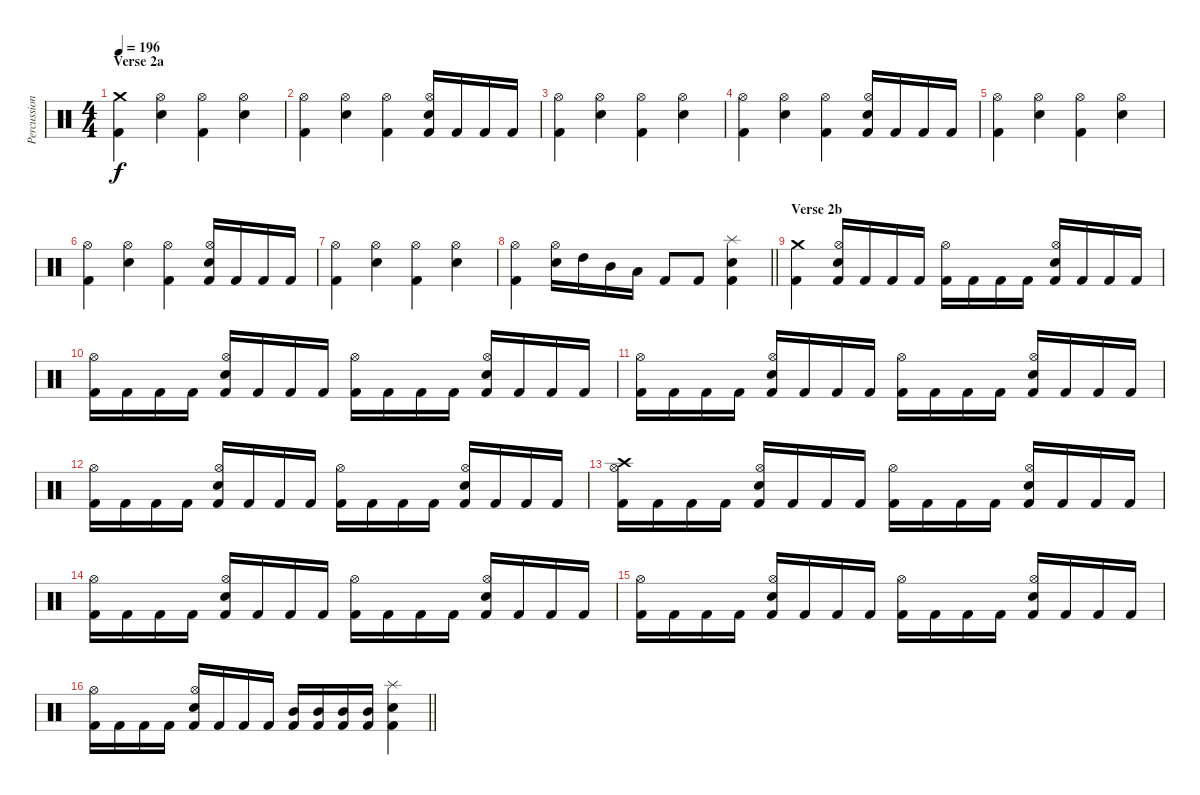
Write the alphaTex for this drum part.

\track ("Percussion" "Percussion") {instrument percussion}
\staff {score}
\articulation defaults
\ts (4 4)
\section ("" "Verse 2a")
\tempo 196
\clef neutral
\ks c
("Crash medium (hit)" "Kick (hit) 2").4{dy f} ("Hi-Hat (open)" "Electric Snare (hit)").4 ("Hi-Hat (open)" "Kick (hit) 2").4 ("Hi-Hat (open)" "Electric Snare (hit)").4 |
("Hi-Hat (open)" "Kick (hit) 2").4 ("Hi-Hat (open)" "Electric Snare (hit)").4 ("Hi-Hat (open)" "Kick (hit) 2").4 ("Hi-Hat (open)" "Electric Snare (hit)" "Kick (hit) 2").16 "Kick (hit) 2".16 "Kick (hit) 2".16 "Kick (hit) 2".16 |
("Hi-Hat (open)" "Kick (hit) 2").4 ("Hi-Hat (open)" "Electric Snare (hit)").4 ("Hi-Hat (open)" "Kick (hit) 2").4 ("Hi-Hat (open)" "Electric Snare (hit)").4 |
("Hi-Hat (open)" "Kick (hit) 2").4 ("Hi-Hat (open)" "Electric Snare (hit)").4 ("Hi-Hat (open)" "Kick (hit) 2").4 ("Hi-Hat (open)" "Electric Snare (hit)" "Kick (hit) 2").16 "Kick (hit) 2".16 "Kick (hit) 2".16 "Kick (hit) 2".16 |
("Hi-Hat (open)" "Kick (hit) 2").4 ("Hi-Hat (open)" "Electric Snare (hit)").4 ("Hi-Hat (open)" "Kick (hit) 2").4 ("Hi-Hat (open)" "Electric Snare (hit)").4 |
("Hi-Hat (open)" "Kick (hit) 2").4 ("Hi-Hat (open)" "Electric Snare (hit)").4 ("Hi-Hat (open)" "Kick (hit) 2").4 ("Hi-Hat (open)" "Electric Snare (hit)" "Kick (hit) 2").16 "Kick (hit) 2".16 "Kick (hit) 2".16 "Kick (hit) 2".16 |
("Hi-Hat (open)" "Kick (hit) 2").4 ("Hi-Hat (open)" "Electric Snare (hit)").4 ("Hi-Hat (open)" "Kick (hit) 2").4 ("Hi-Hat (open)" "Electric Snare (hit)").4 |
\barLineRight lightlight
("Hi-Hat (open)" "Kick (hit) 2").4 ("Hi-Hat (open)" "Electric Snare (hit)").16 "High Tom (hit)".16 "Mid Tom (hit)".16 "Low Tom (hit)".16 "Kick (hit) 2".8 "Kick (hit) 2".8 ("Splash (hit)" "Electric Snare (hit)" "Kick (hit) 2").4 |
\section ("" "Verse 2b")
("Crash medium (hit)" "Kick (hit) 2").4 ("Hi-Hat (open)" "Electric Snare (hit)" "Kick (hit) 2").16 "Kick (hit) 2".16 "Kick (hit) 2".16 "Kick (hit) 2".16 ("Hi-Hat (open)" "Kick (hit) 2").16 "Kick (hit) 2".16 "Kick (hit) 2".16 "Kick (hit) 2".16 ("Hi-Hat (open)" "Electric Snare (hit)" "Kick (hit) 2").16 "Kick (hit) 2".16 "Kick (hit) 2".16 "Kick (hit) 2".16 |
("Hi-Hat (open)" "Kick (hit) 2").16 "Kick (hit) 2".16 "Kick (hit) 2".16 "Kick (hit) 2".16 ("Hi-Hat (open)" "Electric Snare (hit)" "Kick (hit) 2").16 "Kick (hit) 2".16 "Kick (hit) 2".16 "Kick (hit) 2".16 ("Hi-Hat (open)" "Kick (hit) 2").16 "Kick (hit) 2".16 "Kick (hit) 2".16 "Kick (hit) 2".16 ("Hi-Hat (open)" "Electric Snare (hit)" "Kick (hit) 2").16 "Kick (hit) 2".16 "Kick (hit) 2".16 "Kick (hit) 2".16 |
("Hi-Hat (open)" "Kick (hit) 2").16 "Kick (hit) 2".16 "Kick (hit) 2".16 "Kick (hit) 2".16 ("Hi-Hat (open)" "Electric Snare (hit)" "Kick (hit) 2").16 "Kick (hit) 2".16 "Kick (hit) 2".16 "Kick (hit) 2".16 ("Hi-Hat (open)" "Kick (hit) 2").16 "Kick (hit) 2".16 "Kick (hit) 2".16 "Kick (hit) 2".16 ("Hi-Hat (open)" "Electric Snare (hit)" "Kick (hit) 2").16 "Kick (hit) 2".16 "Kick (hit) 2".16 "Kick (hit) 2".16 |
("Hi-Hat (open)" "Kick (hit) 2").16 "Kick (hit) 2".16 "Kick (hit) 2".16 "Kick (hit) 2".16 ("Hi-Hat (open)" "Electric Snare (hit)" "Kick (hit) 2").16 "Kick (hit) 2".16 "Kick (hit) 2".16 "Kick (hit) 2".16 ("Hi-Hat (open)" "Kick (hit) 2").16 "Kick (hit) 2".16 "Kick (hit) 2".16 "Kick (hit) 2".16 ("Hi-Hat (open)" "Electric Snare (hit)" "Kick (hit) 2").16 "Kick (hit) 2".16 "Kick (hit) 2".16 "Kick (hit) 2".16 |
("Hi-Hat (open)" "Crash high (hit)" "Kick (hit) 2").16 "Kick (hit) 2".16 "Kick (hit) 2".16 "Kick (hit) 2".16 ("Hi-Hat (open)" "Electric Snare (hit)" "Kick (hit) 2").16 "Kick (hit) 2".16 "Kick (hit) 2".16 "Kick (hit) 2".16 ("Hi-Hat (open)" "Kick (hit) 2").16 "Kick (hit) 2".16 "Kick (hit) 2".16 "Kick (hit) 2".16 ("Hi-Hat (open)" "Electric Snare (hit)" "Kick (hit) 2").16 "Kick (hit) 2".16 "Kick (hit) 2".16 "Kick (hit) 2".16 |
("Hi-Hat (open)" "Kick (hit) 2").16 "Kick (hit) 2".16 "Kick (hit) 2".16 "Kick (hit) 2".16 ("Hi-Hat (open)" "Electric Snare (hit)" "Kick (hit) 2").16 "Kick (hit) 2".16 "Kick (hit) 2".16 "Kick (hit) 2".16 ("Hi-Hat (open)" "Kick (hit) 2").16 "Kick (hit) 2".16 "Kick (hit) 2".16 "Kick (hit) 2".16 ("Hi-Hat (open)" "Electric Snare (hit)" "Kick (hit) 2").16 "Kick (hit) 2".16 "Kick (hit) 2".16 "Kick (hit) 2".16 |
("Hi-Hat (open)" "Kick (hit) 2").16 "Kick (hit) 2".16 "Kick (hit) 2".16 "Kick (hit) 2".16 ("Hi-Hat (open)" "Electric Snare (hit)" "Kick (hit) 2").16 "Kick (hit) 2".16 "Kick (hit) 2".16 "Kick (hit) 2".16 ("Hi-Hat (open)" "Kick (hit) 2").16 "Kick (hit) 2".16 "Kick (hit) 2".16 "Kick (hit) 2".16 ("Hi-Hat (open)" "Electric Snare (hit)" "Kick (hit) 2").16 "Kick (hit) 2".16 "Kick (hit) 2".16 "Kick (hit) 2".16 |
\barLineRight lightlight
("Hi-Hat (open)" "Kick (hit) 2").16 "Kick (hit) 2".16 "Kick (hit) 2".16 "Kick (hit) 2".16 ("Hi-Hat (open)" "Electric Snare (hit)" "Kick (hit) 2").16 "Kick (hit) 2".16 "Kick (hit) 2".16 "Kick (hit) 2".16 ("Mid Tom (hit)" "Kick (hit) 2").16 ("Mid Tom (hit)" "Kick (hit) 2").16 ("Mid Tom (hit)" "Kick (hit) 2").16 ("Mid Tom (hit)" "Kick (hit) 2").16 ("Splash (hit)" "Electric Snare (hit)" "Kick (hit) 2").4
